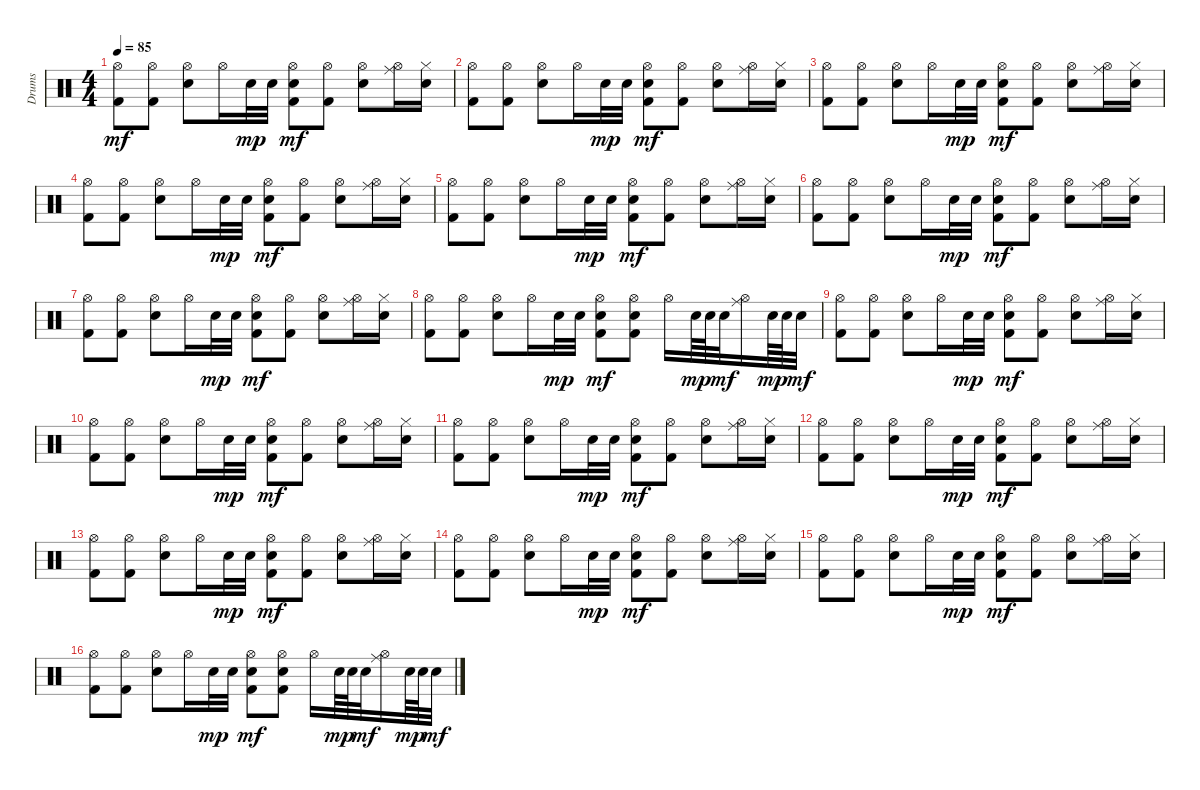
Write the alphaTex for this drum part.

\track ("Drums" "Drums") {instrument percussion}
\staff {score}
\articulation defaults
\ts (4 4)
\tempo 85
\clef neutral
\ks c
("Hi-Hat (open)" "Kick (hit) 2").8{dy mf} ("Hi-Hat (open)" "Kick (hit) 2").8 ("Hi-Hat (open)" "Electric Snare (hit)").8 "Hi-Hat (open)".16 "Electric Snare (hit)".32{dy mp} "Electric Snare (hit)".32 ("Hi-Hat (open)" "Electric Snare (hit)" "Kick (hit) 2").8{dy mf} ("Hi-Hat (open)" "Kick (hit) 2").8 ("Hi-Hat (open)" "Electric Snare (hit)").8 ("Ride (middle)" "Hi-Hat (open)").16 ("Hi-Hat (closed)" "Electric Snare (hit)").16 |
("Hi-Hat (open)" "Kick (hit) 2").8 ("Hi-Hat (open)" "Kick (hit) 2").8 ("Hi-Hat (open)" "Electric Snare (hit)").8 "Hi-Hat (open)".16 "Electric Snare (hit)".32{dy mp} "Electric Snare (hit)".32 ("Hi-Hat (open)" "Electric Snare (hit)" "Kick (hit) 2").8{dy mf} ("Hi-Hat (open)" "Kick (hit) 2").8 ("Hi-Hat (open)" "Electric Snare (hit)").8 ("Ride (middle)" "Hi-Hat (open)").16 ("Hi-Hat (closed)" "Electric Snare (hit)").16 |
("Hi-Hat (open)" "Kick (hit) 2").8 ("Hi-Hat (open)" "Kick (hit) 2").8 ("Hi-Hat (open)" "Electric Snare (hit)").8 "Hi-Hat (open)".16 "Electric Snare (hit)".32{dy mp} "Electric Snare (hit)".32 ("Hi-Hat (open)" "Electric Snare (hit)" "Kick (hit) 2").8{dy mf} ("Hi-Hat (open)" "Kick (hit) 2").8 ("Hi-Hat (open)" "Electric Snare (hit)").8 ("Ride (middle)" "Hi-Hat (open)").16 ("Hi-Hat (closed)" "Electric Snare (hit)").16 |
("Hi-Hat (open)" "Kick (hit) 2").8 ("Hi-Hat (open)" "Kick (hit) 2").8 ("Hi-Hat (open)" "Electric Snare (hit)").8 "Hi-Hat (open)".16 "Electric Snare (hit)".32{dy mp} "Electric Snare (hit)".32 ("Hi-Hat (open)" "Electric Snare (hit)" "Kick (hit) 2").8{dy mf} ("Hi-Hat (open)" "Kick (hit) 2").8 ("Hi-Hat (open)" "Electric Snare (hit)").8 ("Ride (middle)" "Hi-Hat (open)").16 ("Hi-Hat (closed)" "Electric Snare (hit)").16 |
("Hi-Hat (open)" "Kick (hit) 2").8 ("Hi-Hat (open)" "Kick (hit) 2").8 ("Hi-Hat (open)" "Electric Snare (hit)").8 "Hi-Hat (open)".16 "Electric Snare (hit)".32{dy mp} "Electric Snare (hit)".32 ("Hi-Hat (open)" "Electric Snare (hit)" "Kick (hit) 2").8{dy mf} ("Hi-Hat (open)" "Kick (hit) 2").8 ("Hi-Hat (open)" "Electric Snare (hit)").8 ("Ride (middle)" "Hi-Hat (open)").16 ("Hi-Hat (closed)" "Electric Snare (hit)").16 |
("Hi-Hat (open)" "Kick (hit) 2").8 ("Hi-Hat (open)" "Kick (hit) 2").8 ("Hi-Hat (open)" "Electric Snare (hit)").8 "Hi-Hat (open)".16 "Electric Snare (hit)".32{dy mp} "Electric Snare (hit)".32 ("Hi-Hat (open)" "Electric Snare (hit)" "Kick (hit) 2").8{dy mf} ("Hi-Hat (open)" "Kick (hit) 2").8 ("Hi-Hat (open)" "Electric Snare (hit)").8 ("Ride (middle)" "Hi-Hat (open)").16 ("Hi-Hat (closed)" "Electric Snare (hit)").16 |
("Hi-Hat (open)" "Kick (hit) 2").8 ("Hi-Hat (open)" "Kick (hit) 2").8 ("Hi-Hat (open)" "Electric Snare (hit)").8 "Hi-Hat (open)".16 "Electric Snare (hit)".32{dy mp} "Electric Snare (hit)".32 ("Hi-Hat (open)" "Electric Snare (hit)" "Kick (hit) 2").8{dy mf} ("Hi-Hat (open)" "Kick (hit) 2").8 ("Hi-Hat (open)" "Electric Snare (hit)").8 ("Ride (middle)" "Hi-Hat (open)").16 ("Hi-Hat (closed)" "Electric Snare (hit)").16 |
("Hi-Hat (open)" "Kick (hit) 2").8 ("Hi-Hat (open)" "Kick (hit) 2").8 ("Hi-Hat (open)" "Electric Snare (hit)").8 "Hi-Hat (open)".16 "Electric Snare (hit)".32{dy mp} "Electric Snare (hit)".32 ("Hi-Hat (open)" "Electric Snare (hit)" "Kick (hit) 2").8{dy mf} ("Hi-Hat (open)" "Electric Snare (hit)" "Kick (hit) 2").8 "Hi-Hat (open)".16 "Electric Snare (hit)".64{dy mp} "Electric Snare (hit)".64 "Electric Snare (hit)".32{dy mf} ("Ride (middle)" "Hi-Hat (open)").16 "Electric Snare (hit)".64{dy mp} "Electric Snare (hit)".64 "Electric Snare (hit)".32{dy mf} |
("Hi-Hat (open)" "Kick (hit) 2").8 ("Hi-Hat (open)" "Kick (hit) 2").8 ("Hi-Hat (open)" "Electric Snare (hit)").8 "Hi-Hat (open)".16 "Electric Snare (hit)".32{dy mp} "Electric Snare (hit)".32 ("Hi-Hat (open)" "Electric Snare (hit)" "Kick (hit) 2").8{dy mf} ("Hi-Hat (open)" "Kick (hit) 2").8 ("Hi-Hat (open)" "Electric Snare (hit)").8 ("Ride (middle)" "Hi-Hat (open)").16 ("Hi-Hat (closed)" "Electric Snare (hit)").16 |
("Hi-Hat (open)" "Kick (hit) 2").8 ("Hi-Hat (open)" "Kick (hit) 2").8 ("Hi-Hat (open)" "Electric Snare (hit)").8 "Hi-Hat (open)".16 "Electric Snare (hit)".32{dy mp} "Electric Snare (hit)".32 ("Hi-Hat (open)" "Electric Snare (hit)" "Kick (hit) 2").8{dy mf} ("Hi-Hat (open)" "Kick (hit) 2").8 ("Hi-Hat (open)" "Electric Snare (hit)").8 ("Ride (middle)" "Hi-Hat (open)").16 ("Hi-Hat (closed)" "Electric Snare (hit)").16 |
("Hi-Hat (open)" "Kick (hit) 2").8 ("Hi-Hat (open)" "Kick (hit) 2").8 ("Hi-Hat (open)" "Electric Snare (hit)").8 "Hi-Hat (open)".16 "Electric Snare (hit)".32{dy mp} "Electric Snare (hit)".32 ("Hi-Hat (open)" "Electric Snare (hit)" "Kick (hit) 2").8{dy mf} ("Hi-Hat (open)" "Kick (hit) 2").8 ("Hi-Hat (open)" "Electric Snare (hit)").8 ("Ride (middle)" "Hi-Hat (open)").16 ("Hi-Hat (closed)" "Electric Snare (hit)").16 |
("Hi-Hat (open)" "Kick (hit) 2").8 ("Hi-Hat (open)" "Kick (hit) 2").8 ("Hi-Hat (open)" "Electric Snare (hit)").8 "Hi-Hat (open)".16 "Electric Snare (hit)".32{dy mp} "Electric Snare (hit)".32 ("Hi-Hat (open)" "Electric Snare (hit)" "Kick (hit) 2").8{dy mf} ("Hi-Hat (open)" "Kick (hit) 2").8 ("Hi-Hat (open)" "Electric Snare (hit)").8 ("Ride (middle)" "Hi-Hat (open)").16 ("Hi-Hat (closed)" "Electric Snare (hit)").16 |
("Hi-Hat (open)" "Kick (hit) 2").8 ("Hi-Hat (open)" "Kick (hit) 2").8 ("Hi-Hat (open)" "Electric Snare (hit)").8 "Hi-Hat (open)".16 "Electric Snare (hit)".32{dy mp} "Electric Snare (hit)".32 ("Hi-Hat (open)" "Electric Snare (hit)" "Kick (hit) 2").8{dy mf} ("Hi-Hat (open)" "Kick (hit) 2").8 ("Hi-Hat (open)" "Electric Snare (hit)").8 ("Ride (middle)" "Hi-Hat (open)").16 ("Hi-Hat (closed)" "Electric Snare (hit)").16 |
("Hi-Hat (open)" "Kick (hit) 2").8 ("Hi-Hat (open)" "Kick (hit) 2").8 ("Hi-Hat (open)" "Electric Snare (hit)").8 "Hi-Hat (open)".16 "Electric Snare (hit)".32{dy mp} "Electric Snare (hit)".32 ("Hi-Hat (open)" "Electric Snare (hit)" "Kick (hit) 2").8{dy mf} ("Hi-Hat (open)" "Kick (hit) 2").8 ("Hi-Hat (open)" "Electric Snare (hit)").8 ("Ride (middle)" "Hi-Hat (open)").16 ("Hi-Hat (closed)" "Electric Snare (hit)").16 |
("Hi-Hat (open)" "Kick (hit) 2").8 ("Hi-Hat (open)" "Kick (hit) 2").8 ("Hi-Hat (open)" "Electric Snare (hit)").8 "Hi-Hat (open)".16 "Electric Snare (hit)".32{dy mp} "Electric Snare (hit)".32 ("Hi-Hat (open)" "Electric Snare (hit)" "Kick (hit) 2").8{dy mf} ("Hi-Hat (open)" "Kick (hit) 2").8 ("Hi-Hat (open)" "Electric Snare (hit)").8 ("Ride (middle)" "Hi-Hat (open)").16 ("Hi-Hat (closed)" "Electric Snare (hit)").16 |
("Hi-Hat (open)" "Kick (hit) 2").8 ("Hi-Hat (open)" "Kick (hit) 2").8 ("Hi-Hat (open)" "Electric Snare (hit)").8 "Hi-Hat (open)".16 "Electric Snare (hit)".32{dy mp} "Electric Snare (hit)".32 ("Hi-Hat (open)" "Electric Snare (hit)" "Kick (hit) 2").8{dy mf} ("Hi-Hat (open)" "Electric Snare (hit)" "Kick (hit) 2").8 "Hi-Hat (open)".16 "Electric Snare (hit)".64{dy mp} "Electric Snare (hit)".64 "Electric Snare (hit)".32{dy mf} ("Ride (middle)" "Hi-Hat (open)").16 "Electric Snare (hit)".64{dy mp} "Electric Snare (hit)".64 "Electric Snare (hit)".32{dy mf}
